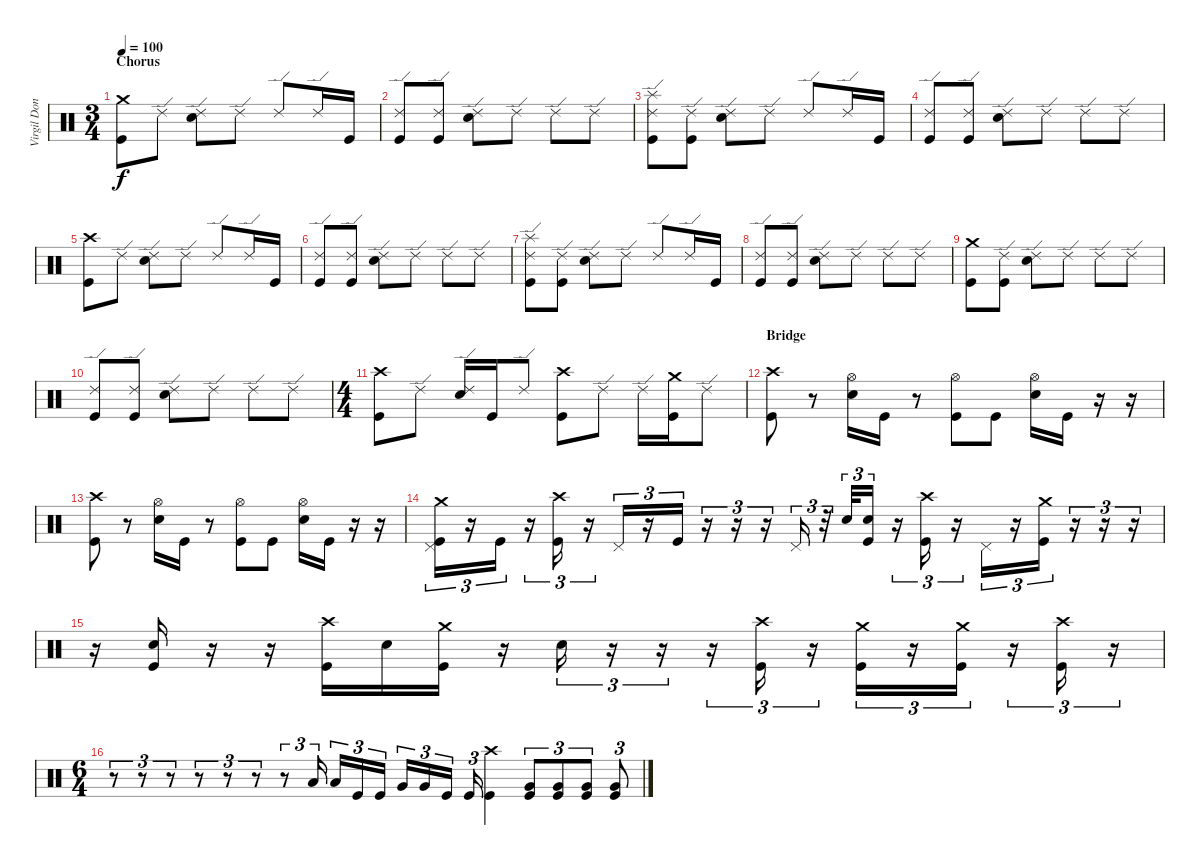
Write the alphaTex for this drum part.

\track ("Virgil Donati" "Virgil Don") {instrument percussion}
\staff {score}
\articulation defaults
\ts (3 4)
\section ("" "Chorus")
\tempo 100
\clef neutral
\ks c
("Crash medium (hit)" "Kick (hit)").8{dy f} "Ride (edge) 2".8 ("Ride (edge) 2" "Electric Snare (hit)").8 "Ride (edge) 2".8 "Ride (edge) 2".8 "Ride (edge) 2".16 "Kick (hit)".16 |
("Ride (edge) 2" "Kick (hit)").8 ("Ride (edge) 2" "Kick (hit)").8 ("Ride (edge) 2" "Electric Snare (hit)").8 "Ride (edge) 2".8 "Ride (edge) 2".8 "Ride (edge) 2".8 |
("Ride (edge) 2" "Splash (hit)" "Kick (hit)").8 ("Ride (edge) 2" "Kick (hit)").8 ("Ride (edge) 2" "Electric Snare (hit)").8 "Ride (edge) 2".8 "Ride (edge) 2".8 "Ride (edge) 2".16 "Kick (hit)".16 |
("Ride (edge) 2" "Kick (hit)").8 ("Ride (edge) 2" "Kick (hit)").8 ("Ride (edge) 2" "Electric Snare (hit)").8 "Ride (edge) 2".8 "Ride (edge) 2".8 "Ride (edge) 2".8 |
("Crash high (hit)" "Kick (hit)").8 "Ride (edge) 2".8 ("Ride (edge) 2" "Electric Snare (hit)").8 "Ride (edge) 2".8 "Ride (edge) 2".8 "Ride (edge) 2".16 "Kick (hit)".16 |
("Ride (edge) 2" "Kick (hit)").8 ("Ride (edge) 2" "Kick (hit)").8 ("Ride (edge) 2" "Electric Snare (hit)").8 "Ride (edge) 2".8 "Ride (edge) 2".8 "Ride (edge) 2".8 |
("Ride (edge) 2" "Splash (hit)" "Kick (hit)").8 ("Ride (edge) 2" "Kick (hit)").8 ("Ride (edge) 2" "Electric Snare (hit)").8 "Ride (edge) 2".8 "Ride (edge) 2".8 "Ride (edge) 2".16 "Kick (hit)".16 |
("Ride (edge) 2" "Kick (hit)").8 ("Ride (edge) 2" "Kick (hit)").8 ("Ride (edge) 2" "Electric Snare (hit)").8 "Ride (edge) 2".8 "Ride (edge) 2".8 "Ride (edge) 2".8 |
("Crash medium (hit)" "Kick (hit)").8 ("Ride (edge) 2" "Kick (hit)").8 ("Ride (edge) 2" "Electric Snare (hit)").8 "Ride (edge) 2".8 "Ride (edge) 2".8 "Ride (edge) 2".8 |
("Ride (edge) 2" "Kick (hit)").8 ("Ride (edge) 2" "Kick (hit)").8 ("Ride (edge) 2" "Electric Snare (hit)").8 "Ride (edge) 2".8 "Ride (edge) 2".8 "Ride (edge) 2".8 |
\ts (4 4)
("Crash high (hit)" "Kick (hit)").8 "Ride (edge) 2".8 ("Ride (edge) 2" "Electric Snare (hit)").16 "Kick (hit)".16 "Ride (edge) 2".8 ("Crash high (hit)" "Kick (hit)").8 "Ride (edge) 2".8 "Ride (edge) 2".16 ("Crash medium (hit)" "Kick (hit)").16 "Ride (edge) 2".8 |
\section ("" "Bridge")
("Crash high (hit)" "Kick (hit)").8 r.8 ("Hi-Hat (open)" "Electric Snare (hit)").16 "Kick (hit)".16 r.8 ("Hi-Hat (open)" "Kick (hit)").8 "Kick (hit)".8 ("Hi-Hat (open)" "Electric Snare (hit)").16 "Kick (hit)".16 r.16 r.16 |
("Crash high (hit)" "Kick (hit)").8 r.8 ("Hi-Hat (open)" "Electric Snare (hit)").16 "Kick (hit)".16 r.8 ("Hi-Hat (open)" "Kick (hit)").8 "Kick (hit)".8 ("Hi-Hat (open)" "Electric Snare (hit)").16 "Kick (hit)".16 r.16 r.16 |
("Pedal Hi-Hat (hit)" "Crash medium (hit)" "Kick (hit)").16{tu (3 2)} r.16{tu (3 2)} "Kick (hit)".16{tu (3 2)} r.16{tu (3 2)} ("Crash high (hit)" "Kick (hit)").16{tu (3 2)} r.16{tu (3 2)} "Pedal Hi-Hat (hit)".16{tu (3 2)} r.16{tu (3 2)} "Kick (hit)".16{tu (3 2)} r.16{tu (3 2)} r.16{tu (3 2)} r.16{tu (3 2)} "Pedal Hi-Hat (hit)".16{tu (3 2)} r.32{tu (3 2)} "Electric Snare (hit)".32{tu (3 2)} ("Electric Snare (hit)" "Kick (hit)").16{tu (3 2)} r.16{tu (3 2)} ("Crash high (hit)" "Kick (hit)").16{tu (3 2)} r.16{tu (3 2)} "Pedal Hi-Hat (hit)".16{tu (3 2)} r.16{tu (3 2)} ("Crash medium (hit)" "Kick (hit)").16{tu (3 2)} r.16{tu (3 2)} r.16{tu (3 2)} r.16{tu (3 2)} |
r.16 ("Electric Snare (hit)" "Kick (hit)").16 r.16 r.16 ("Crash high (hit)" "Kick (hit)").16 "Electric Snare (hit)".16 ("Crash medium (hit)" "Kick (hit)").16 r.16 "Electric Snare (hit)".16{tu (3 2)} r.16{tu (3 2)} r.16{tu (3 2)} r.16{tu (3 2)} ("Crash high (hit)" "Kick (hit)").16{tu (3 2)} r.16{tu (3 2)} ("Crash medium (hit)" "Kick (hit)").16{tu (3 2)} r.16{tu (3 2)} ("Crash medium (hit)" "Kick (hit)").16{tu (3 2)} r.16{tu (3 2)} ("Crash high (hit)" "Kick (hit)").16{tu (3 2)} r.16{tu (3 2)} |
\ts (6 4)
r.8{tu (3 2)} r.8{tu (3 2)} r.8{tu (3 2)} r.8{tu (3 2)} r.8{tu (3 2)} r.8{tu (3 2)} r.8{tu (3 2)} "Low Tom (hit)".16{tu (3 2)} "Low Tom (hit)".16{tu (3 2)} "Kick (hit)".16{tu (3 2)} "Kick (hit)".16{tu (3 2)} "Very Low Tom (hit)".16{tu (3 2)} "Very Low Tom (hit)".16{tu (3 2)} "Kick (hit)".16{tu (3 2)} "Kick (hit)".16{tu (3 2)} ("Crash high (hit)" "Kick (hit)").4 ("Very Low Tom (hit)" "Kick (hit)").8{tu (3 2)} ("Very Low Tom (hit)" "Kick (hit)").8{tu (3 2)} ("Very Low Tom (hit)" "Kick (hit)").8{tu (3 2)} ("Very Low Tom (hit)" "Kick (hit)").8{tu (3 2)}
